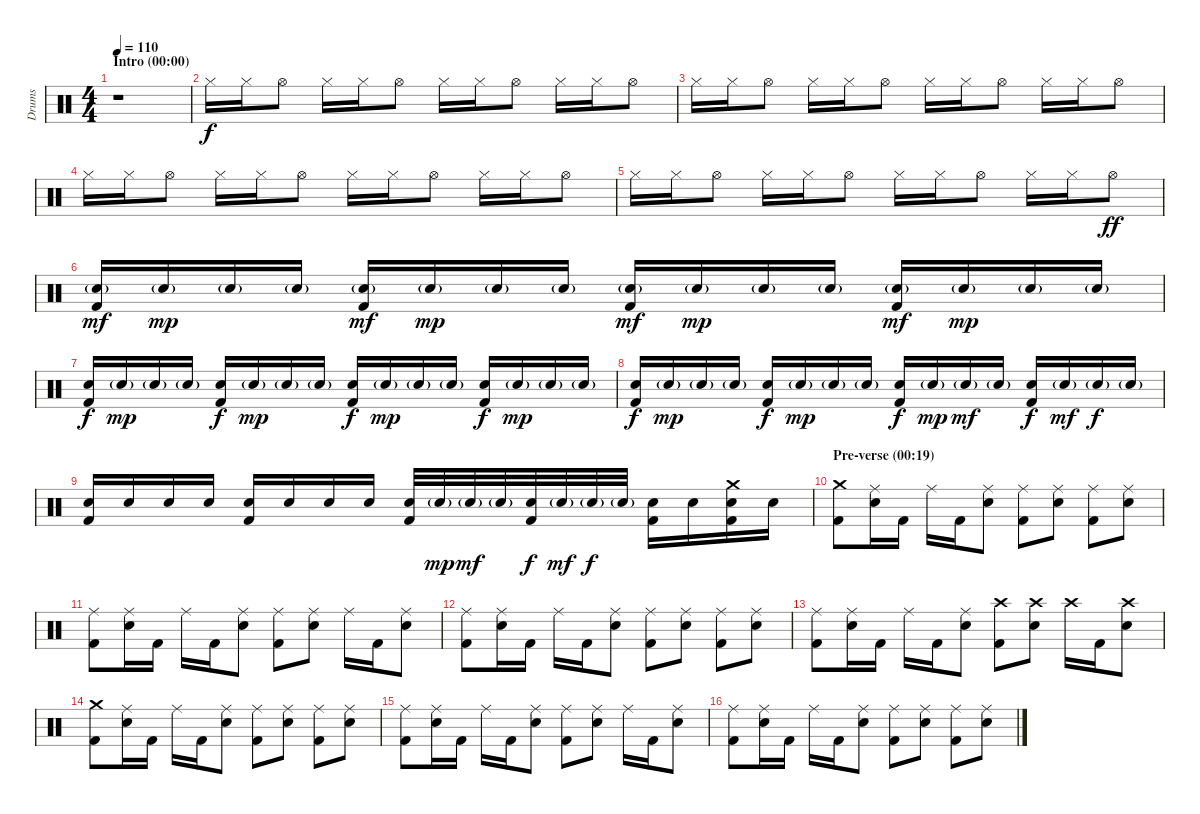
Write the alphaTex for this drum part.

\track ("Drums" "Drums") {instrument percussion}
\staff {score}
\articulation defaults
\ts (4 4)
\section ("" "Intro (00:00)")
\tempo 110
\clef neutral
\ks c
r.1{dy f} |
"Hi-Hat (closed)".16 "Hi-Hat (closed)".16 "Hi-Hat (open)".8 "Hi-Hat (closed)".16 "Hi-Hat (closed)".16 "Hi-Hat (open)".8 "Hi-Hat (closed)".16 "Hi-Hat (closed)".16 "Hi-Hat (open)".8 "Hi-Hat (closed)".16 "Hi-Hat (closed)".16 "Hi-Hat (open)".8 |
"Hi-Hat (closed)".16 "Hi-Hat (closed)".16 "Hi-Hat (open)".8 "Hi-Hat (closed)".16 "Hi-Hat (closed)".16 "Hi-Hat (open)".8 "Hi-Hat (closed)".16 "Hi-Hat (closed)".16 "Hi-Hat (open)".8 "Hi-Hat (closed)".16 "Hi-Hat (closed)".16 "Hi-Hat (open)".8 |
"Hi-Hat (closed)".16 "Hi-Hat (closed)".16 "Hi-Hat (open)".8 "Hi-Hat (closed)".16 "Hi-Hat (closed)".16 "Hi-Hat (open)".8 "Hi-Hat (closed)".16 "Hi-Hat (closed)".16 "Hi-Hat (open)".8 "Hi-Hat (closed)".16 "Hi-Hat (closed)".16 "Hi-Hat (open)".8 |
"Hi-Hat (closed)".16 "Hi-Hat (closed)".16 "Hi-Hat (open)".8 "Hi-Hat (closed)".16 "Hi-Hat (closed)".16 "Hi-Hat (open)".8 "Hi-Hat (closed)".16 "Hi-Hat (closed)".16 "Hi-Hat (open)".8 "Hi-Hat (closed)".16 "Hi-Hat (closed)".16 "Hi-Hat (open)".8{dy ff} |
("Electric Snare (hit)"{g} "Kick (hit) 2").16{dy mf} "Electric Snare (hit)"{g}.16{dy mp} "Electric Snare (hit)"{g}.16 "Electric Snare (hit)"{g}.16 ("Electric Snare (hit)"{g} "Kick (hit) 2").16{dy mf} "Electric Snare (hit)"{g}.16{dy mp} "Electric Snare (hit)"{g}.16 "Electric Snare (hit)"{g}.16 ("Electric Snare (hit)"{g} "Kick (hit) 2").16{dy mf} "Electric Snare (hit)"{g}.16{dy mp} "Electric Snare (hit)"{g}.16 "Electric Snare (hit)"{g}.16 ("Electric Snare (hit)"{g} "Kick (hit) 2").16{dy mf} "Electric Snare (hit)"{g}.16{dy mp} "Electric Snare (hit)"{g}.16 "Electric Snare (hit)"{g}.16 |
("Electric Snare (hit)" "Kick (hit) 2").16{dy f} "Electric Snare (hit)"{g}.16{dy mp} "Electric Snare (hit)"{g}.16 "Electric Snare (hit)"{g}.16 ("Electric Snare (hit)" "Kick (hit) 2").16{dy f} "Electric Snare (hit)"{g}.16{dy mp} "Electric Snare (hit)"{g}.16 "Electric Snare (hit)"{g}.16 ("Electric Snare (hit)" "Kick (hit) 2").16{dy f} "Electric Snare (hit)"{g}.16{dy mp} "Electric Snare (hit)"{g}.16 "Electric Snare (hit)"{g}.16 ("Electric Snare (hit)" "Kick (hit) 2").16{dy f} "Electric Snare (hit)"{g}.16{dy mp} "Electric Snare (hit)"{g}.16 "Electric Snare (hit)"{g}.16 |
("Electric Snare (hit)" "Kick (hit) 2").16{dy f} "Electric Snare (hit)"{g}.16{dy mp} "Electric Snare (hit)"{g}.16 "Electric Snare (hit)"{g}.16 ("Electric Snare (hit)" "Kick (hit) 2").16{dy f} "Electric Snare (hit)"{g}.16{dy mp} "Electric Snare (hit)"{g}.16 "Electric Snare (hit)"{g}.16 ("Electric Snare (hit)" "Kick (hit) 2").16{dy f} "Electric Snare (hit)"{g}.16{dy mp} "Electric Snare (hit)"{g}.16{dy mf} "Electric Snare (hit)"{g}.16 ("Electric Snare (hit)" "Kick (hit) 2").16{dy f} "Electric Snare (hit)"{g}.16{dy mf} "Electric Snare (hit)"{g}.16{dy f} "Electric Snare (hit)"{g}.16 |
("Electric Snare (hit)" "Kick (hit) 2").16 "Electric Snare (hit)".16 "Electric Snare (hit)".16 "Electric Snare (hit)".16 ("Electric Snare (hit)" "Kick (hit) 2").16 "Electric Snare (hit)".16 "Electric Snare (hit)".16 "Electric Snare (hit)".16 ("Electric Snare (hit)" "Kick (hit) 2").32 "Electric Snare (hit)"{g}.32{dy mp} "Electric Snare (hit)"{g}.32{dy mf} "Electric Snare (hit)"{g}.32 ("Electric Snare (hit)" "Kick (hit) 2").32{dy f} "Electric Snare (hit)"{g}.32{dy mf} "Electric Snare (hit)"{g}.32{dy f} "Electric Snare (hit)"{g}.32 ("Electric Snare (hit)" "Kick (hit) 2").16 "Electric Snare (hit)".16 ("Crash medium (hit)" "Electric Snare (hit)" "Kick (hit) 2").16 "Electric Snare (hit)".16 |
\section ("" "Pre-verse (00:19)")
("Crash medium (hit)" "Kick (hit) 2").8 ("Ride (middle)" "Electric Snare (hit)").16 "Kick (hit) 2".16 "Ride (middle)".16 "Kick (hit) 2".16 ("Ride (middle)" "Electric Snare (hit)").8 ("Ride (middle)" "Kick (hit) 2").8 ("Ride (middle)" "Electric Snare (hit)").8 ("Ride (middle)" "Kick (hit) 2").8 ("Ride (middle)" "Electric Snare (hit)").8 |
("Ride (middle)" "Kick (hit) 2").8 ("Ride (middle)" "Electric Snare (hit)").16 "Kick (hit) 2".16 "Ride (middle)".16 "Kick (hit) 2".16 ("Ride (middle)" "Electric Snare (hit)").8 ("Ride (middle)" "Kick (hit) 2").8 ("Ride (middle)" "Electric Snare (hit)").8 "Ride (middle)".16 "Kick (hit) 2".16 ("Ride (middle)" "Electric Snare (hit)").8 |
("Ride (middle)" "Kick (hit) 2").8 ("Ride (middle)" "Electric Snare (hit)").16 "Kick (hit) 2".16 "Ride (middle)".16 "Kick (hit) 2".16 ("Ride (middle)" "Electric Snare (hit)").8 ("Ride (middle)" "Kick (hit) 2").8 ("Ride (middle)" "Electric Snare (hit)").8 ("Ride (middle)" "Kick (hit) 2").8 ("Ride (middle)" "Electric Snare (hit)").8 |
("Ride (middle)" "Kick (hit) 2").8 ("Ride (middle)" "Electric Snare (hit)").16 "Kick (hit) 2".16 "Ride (middle)".16 "Kick (hit) 2".16 ("Ride (middle)" "Electric Snare (hit)").8 ("Crash high (hit)" "Kick (hit) 2").8 ("Crash high (hit)" "Electric Snare (hit)").8 "Crash high (hit)".16 "Kick (hit) 2".16 ("Crash high (hit)" "Electric Snare (hit)").8 |
("Crash medium (hit)" "Kick (hit) 2").8 ("Ride (middle)" "Electric Snare (hit)").16 "Kick (hit) 2".16 "Ride (middle)".16 "Kick (hit) 2".16 ("Ride (middle)" "Electric Snare (hit)").8 ("Ride (middle)" "Kick (hit) 2").8 ("Ride (middle)" "Electric Snare (hit)").8 ("Ride (middle)" "Kick (hit) 2").8 ("Ride (middle)" "Electric Snare (hit)").8 |
("Ride (middle)" "Kick (hit) 2").8 ("Ride (middle)" "Electric Snare (hit)").16 "Kick (hit) 2".16 "Ride (middle)".16 "Kick (hit) 2".16 ("Ride (middle)" "Electric Snare (hit)").8 ("Ride (middle)" "Kick (hit) 2").8 ("Ride (middle)" "Electric Snare (hit)").8 "Ride (middle)".16 "Kick (hit) 2".16 ("Ride (middle)" "Electric Snare (hit)").8 |
("Ride (middle)" "Kick (hit) 2").8 ("Ride (middle)" "Electric Snare (hit)").16 "Kick (hit) 2".16 "Ride (middle)".16 "Kick (hit) 2".16 ("Ride (middle)" "Electric Snare (hit)").8 ("Ride (middle)" "Kick (hit) 2").8 ("Ride (middle)" "Electric Snare (hit)").8 ("Ride (middle)" "Kick (hit) 2").8 ("Ride (middle)" "Electric Snare (hit)").8
